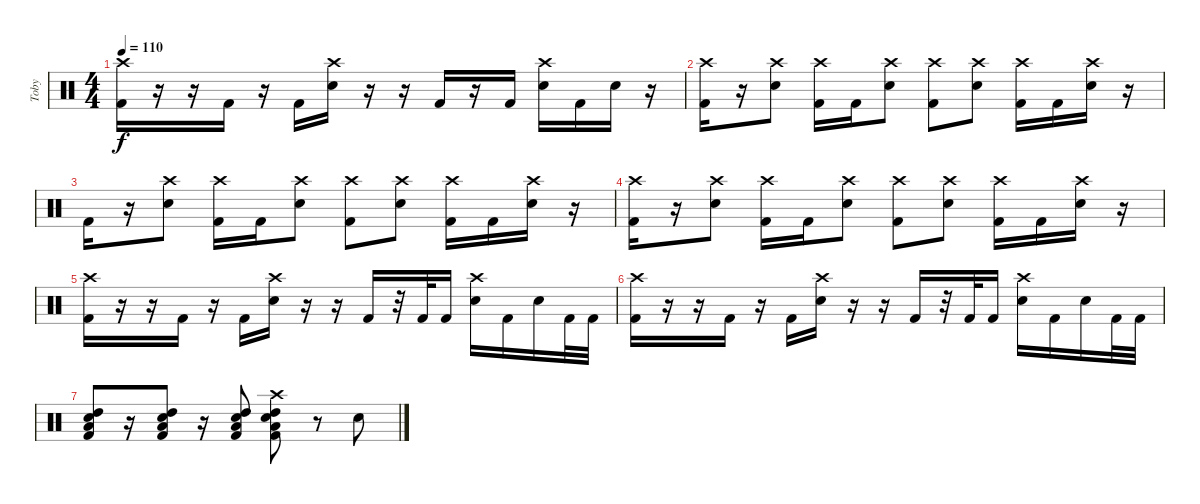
\track ("Toby" "Toby") {instrument percussion}
\staff {score}
\articulation defaults
\ts (4 4)
\tempo 110
\clef neutral
\ks c
("Crash high (hit)" "Kick (hit) 2").16{dy f} r.16 r.16 "Kick (hit) 2".16 r.16 "Kick (hit) 2".16 ("Crash high (hit)" "Electric Snare (hit)").16 r.16 r.16 "Kick (hit) 2".16 r.16 "Kick (hit) 2".16 ("Crash high (hit)" "Electric Snare (hit)").16 "Kick (hit) 2".16 "Electric Snare (hit)".16 r.16 |
("Crash high (hit)" "Kick (hit) 2").16 r.16 ("Crash high (hit)" "Electric Snare (hit)").8 ("Crash high (hit)" "Kick (hit) 2").16 "Kick (hit) 2".16 ("Crash high (hit)" "Electric Snare (hit)").8 ("Crash high (hit)" "Kick (hit) 2").8 ("Crash high (hit)" "Electric Snare (hit)").8 ("Crash high (hit)" "Kick (hit) 2").16 "Kick (hit) 2".16 ("Crash high (hit)" "Electric Snare (hit)").16 r.16 |
"Kick (hit) 2".16 r.16 ("Crash high (hit)" "Electric Snare (hit)").8 ("Crash high (hit)" "Kick (hit) 2").16 "Kick (hit) 2".16 ("Crash high (hit)" "Electric Snare (hit)").8 ("Crash high (hit)" "Kick (hit) 2").8 ("Crash high (hit)" "Electric Snare (hit)").8 ("Crash high (hit)" "Kick (hit) 2").16 "Kick (hit) 2".16 ("Crash high (hit)" "Electric Snare (hit)").16 r.16 |
("Crash high (hit)" "Kick (hit) 2").16 r.16 ("Crash high (hit)" "Electric Snare (hit)").8 ("Crash high (hit)" "Kick (hit) 2").16 "Kick (hit) 2".16 ("Crash high (hit)" "Electric Snare (hit)").8 ("Crash high (hit)" "Kick (hit) 2").8 ("Crash high (hit)" "Electric Snare (hit)").8 ("Crash high (hit)" "Kick (hit) 2").16 "Kick (hit) 2".16 ("Crash high (hit)" "Electric Snare (hit)").16 r.16 |
("Crash high (hit)" "Kick (hit) 2").16 r.16 r.16 "Kick (hit) 2".16 r.16 "Kick (hit) 2".16 ("Crash high (hit)" "Electric Snare (hit)").16 r.16 r.16 "Kick (hit) 2".16 r.32 "Kick (hit) 2".32 "Kick (hit) 2".16 ("Crash high (hit)" "Electric Snare (hit)").16 "Kick (hit) 2".16 "Electric Snare (hit)".16 "Kick (hit) 2".32 "Kick (hit) 2".32 |
("Crash high (hit)" "Kick (hit) 2").16 r.16 r.16 "Kick (hit) 2".16 r.16 "Kick (hit) 2".16 ("Crash high (hit)" "Electric Snare (hit)").16 r.16 r.16 "Kick (hit) 2".16 r.32 "Kick (hit) 2".32 "Kick (hit) 2".16 ("Crash high (hit)" "Electric Snare (hit)").16 "Kick (hit) 2".16 "Electric Snare (hit)".16 "Kick (hit) 2".32 "Kick (hit) 2".32 |
("Electric Snare (hit)" "High Tom (hit)" "Kick (hit) 2" "Low Tom (hit)").8 r.16 ("Electric Snare (hit)" "High Tom (hit)" "Kick (hit) 2" "Low Tom (hit)").8 r.16 ("Electric Snare (hit)" "High Tom (hit)" "Kick (hit) 2" "Low Tom (hit)").8 ("Electric Snare (hit)" "High Tom (hit)" "Kick (hit) 2" "Crash high (hit)" "Low Tom (hit)").8 r.8 "Snare (hit)".8
